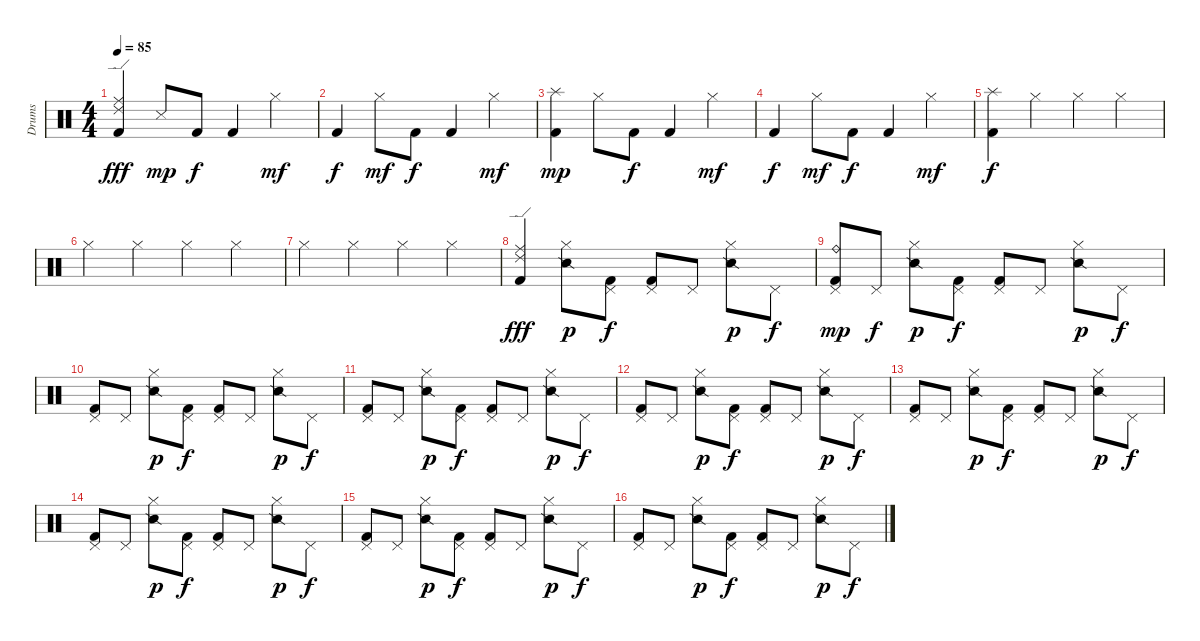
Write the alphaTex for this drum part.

\track ("Drums" "Drums") {instrument percussion}
\staff {score}
\articulation defaults
\ts (4 4)
\tempo 85
\clef neutral
\ks c
("Ride (edge) 2" "Ride (middle)" "Kick (hit) 2").4{dy fff} "Snare (side stick) 3".8{dy mp} "Kick (hit) 2".8{dy f} "Kick (hit) 2".4 "Hi-Hat (closed)".4{dy mf} |
"Kick (hit) 2".4{dy f} "Hi-Hat (closed)".8{dy mf} "Kick (hit) 2".8{dy f} "Kick (hit) 2".4 "Hi-Hat (closed)".4{dy mf} |
("Splash (hit)" "Kick (hit) 2").4{dy mp} "Hi-Hat (closed)".8 "Kick (hit) 2".8{dy f} "Kick (hit) 2".4 "Hi-Hat (closed)".4{dy mf} |
"Kick (hit) 2".4{dy f} "Hi-Hat (closed)".8{dy mf} "Kick (hit) 2".8{dy f} "Kick (hit) 2".4 "Hi-Hat (closed)".4{dy mf} |
("Splash (hit)" "Kick (hit) 2").4{dy f} "Hi-Hat (closed)".4 "Hi-Hat (closed)".4 "Hi-Hat (closed)".4 |
"Hi-Hat (closed)".4 "Hi-Hat (closed)".4 "Hi-Hat (closed)".4 "Hi-Hat (closed)".4 |
"Hi-Hat (closed)".4 "Hi-Hat (closed)".4 "Hi-Hat (closed)".4 "Hi-Hat (closed)".4 |
("Ride (edge) 2" "Ride (middle)" "Kick (hit) 2").4{dy fff} ("Hi-Hat (closed)" "Snare (side stick) 2").8{dy p} ("Pedal Hi-Hat (hit)" "Kick (hit) 2").8{dy f} ("Pedal Hi-Hat (hit)" "Kick (hit) 2").8 "Pedal Hi-Hat (hit)".8 ("Hi-Hat (closed)" "Snare (side stick) 2").8{dy p} "Pedal Hi-Hat (hit)".8{dy f} |
("Ride (bell)" "Pedal Hi-Hat (hit)" "Kick (hit) 2").8{dy mp} "Pedal Hi-Hat (hit)".8{dy f} ("Hi-Hat (closed)" "Snare (side stick) 2").8{dy p} ("Pedal Hi-Hat (hit)" "Kick (hit) 2").8{dy f} ("Pedal Hi-Hat (hit)" "Kick (hit) 2").8 "Pedal Hi-Hat (hit)".8 ("Hi-Hat (closed)" "Snare (side stick) 2").8{dy p} "Pedal Hi-Hat (hit)".8{dy f} |
("Pedal Hi-Hat (hit)" "Kick (hit) 2").8 "Pedal Hi-Hat (hit)".8 ("Hi-Hat (closed)" "Snare (side stick) 2").8{dy p} ("Pedal Hi-Hat (hit)" "Kick (hit) 2").8{dy f} ("Pedal Hi-Hat (hit)" "Kick (hit) 2").8 "Pedal Hi-Hat (hit)".8 ("Hi-Hat (closed)" "Snare (side stick) 2").8{dy p} "Pedal Hi-Hat (hit)".8{dy f} |
("Pedal Hi-Hat (hit)" "Kick (hit) 2").8 "Pedal Hi-Hat (hit)".8 ("Hi-Hat (closed)" "Snare (side stick) 2").8{dy p} ("Pedal Hi-Hat (hit)" "Kick (hit) 2").8{dy f} ("Pedal Hi-Hat (hit)" "Kick (hit) 2").8 "Pedal Hi-Hat (hit)".8 ("Hi-Hat (closed)" "Snare (side stick) 2").8{dy p} "Pedal Hi-Hat (hit)".8{dy f} |
("Pedal Hi-Hat (hit)" "Kick (hit) 2").8 "Pedal Hi-Hat (hit)".8 ("Hi-Hat (closed)" "Snare (side stick) 2").8{dy p} ("Pedal Hi-Hat (hit)" "Kick (hit) 2").8{dy f} ("Pedal Hi-Hat (hit)" "Kick (hit) 2").8 "Pedal Hi-Hat (hit)".8 ("Hi-Hat (closed)" "Snare (side stick) 2").8{dy p} "Pedal Hi-Hat (hit)".8{dy f} |
("Pedal Hi-Hat (hit)" "Kick (hit) 2").8 "Pedal Hi-Hat (hit)".8 ("Hi-Hat (closed)" "Snare (side stick) 2").8{dy p} ("Pedal Hi-Hat (hit)" "Kick (hit) 2").8{dy f} ("Pedal Hi-Hat (hit)" "Kick (hit) 2").8 "Pedal Hi-Hat (hit)".8 ("Hi-Hat (closed)" "Snare (side stick) 2").8{dy p} "Pedal Hi-Hat (hit)".8{dy f} |
("Pedal Hi-Hat (hit)" "Kick (hit) 2").8 "Pedal Hi-Hat (hit)".8 ("Hi-Hat (closed)" "Snare (side stick) 2").8{dy p} ("Pedal Hi-Hat (hit)" "Kick (hit) 2").8{dy f} ("Pedal Hi-Hat (hit)" "Kick (hit) 2").8 "Pedal Hi-Hat (hit)".8 ("Hi-Hat (closed)" "Snare (side stick) 2").8{dy p} "Pedal Hi-Hat (hit)".8{dy f} |
("Pedal Hi-Hat (hit)" "Kick (hit) 2").8 "Pedal Hi-Hat (hit)".8 ("Hi-Hat (closed)" "Snare (side stick) 2").8{dy p} ("Pedal Hi-Hat (hit)" "Kick (hit) 2").8{dy f} ("Pedal Hi-Hat (hit)" "Kick (hit) 2").8 "Pedal Hi-Hat (hit)".8 ("Hi-Hat (closed)" "Snare (side stick) 2").8{dy p} "Pedal Hi-Hat (hit)".8{dy f} |
("Pedal Hi-Hat (hit)" "Kick (hit) 2").8 "Pedal Hi-Hat (hit)".8 ("Hi-Hat (closed)" "Snare (side stick) 2").8{dy p} ("Pedal Hi-Hat (hit)" "Kick (hit) 2").8{dy f} ("Pedal Hi-Hat (hit)" "Kick (hit) 2").8 "Pedal Hi-Hat (hit)".8 ("Hi-Hat (closed)" "Snare (side stick) 2").8{dy p} "Pedal Hi-Hat (hit)".8{dy f}
